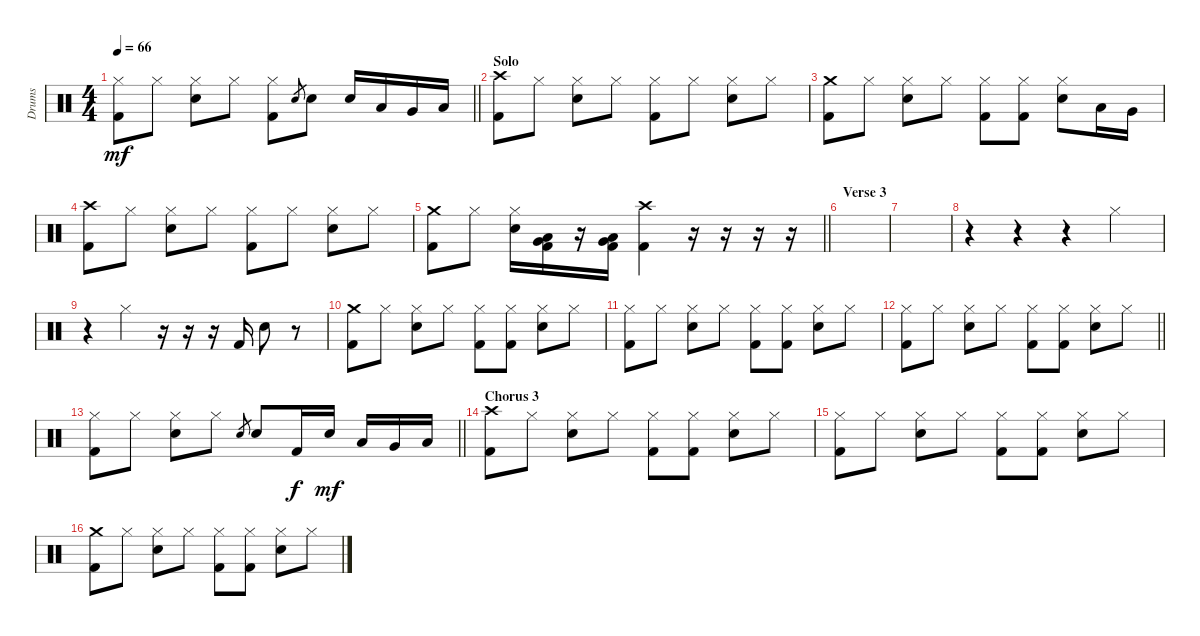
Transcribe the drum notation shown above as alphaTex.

\track ("Drums" "Drums") {instrument percussion}
\staff {score}
\articulation defaults
\ts (4 4)
\tempo 66
\clef neutral
\barLineRight lightlight
\ks c
("Hi-Hat (closed)" "Kick (hit) 2").8{dy mf} "Hi-Hat (closed)".8 ("Hi-Hat (closed)" "Snare (hit) 2").8 "Hi-Hat (closed)".8 ("Hi-Hat (closed)" "Kick (hit) 2").8 "Snare (hit) 2".8{gr} "Snare (hit) 2".8 "Snare (hit) 2".16 "Low Tom (hit)".16 "Very Low Tom (hit)".16 "Low Floor Tom (hit)".16 |
\section ("" "Solo")
("Crash high (hit)" "Kick (hit) 2").8 "Hi-Hat (closed)".8 ("Hi-Hat (closed)" "Snare (hit) 2").8 "Hi-Hat (closed)".8 ("Hi-Hat (closed)" "Kick (hit) 2").8 "Hi-Hat (closed)".8 ("Hi-Hat (closed)" "Snare (hit) 2").8 "Hi-Hat (closed)".8 |
("Crash medium (hit)" "Kick (hit) 2").8 "Hi-Hat (closed)".8 ("Hi-Hat (closed)" "Snare (hit) 2").8 "Hi-Hat (closed)".8 ("Hi-Hat (closed)" "Kick (hit) 2").8 ("Hi-Hat (closed)" "Kick (hit) 2").8 ("Hi-Hat (closed)" "Snare (hit) 2").8 "Low Tom (hit)".16 "Very Low Tom (hit)".16 |
("Crash high (hit)" "Kick (hit) 2").8 "Hi-Hat (closed)".8 ("Hi-Hat (closed)" "Snare (hit) 2").8 "Hi-Hat (closed)".8 ("Hi-Hat (closed)" "Kick (hit) 2").8 "Hi-Hat (closed)".8 ("Hi-Hat (closed)" "Snare (hit) 2").8 "Hi-Hat (closed)".8 |
\barLineRight lightlight
("Crash medium (hit)" "Kick (hit) 2").8 "Hi-Hat (closed)".8 ("Hi-Hat (closed)" "Snare (hit) 2").16 ("Very Low Tom (hit)" "Low Floor Tom (hit)" "Kick (hit) 2").16 r.16 ("Low Floor Tom (hit)" "Very Low Tom (hit)" "Kick (hit) 2").16 ("Crash high (hit)" "Kick (hit) 2").4 r.16 r.16 r.16 r.16 |
\section ("" "Verse 3")
|
|
r.4 r.4 r.4 "Hi-Hat (closed)".4 |
r.4 "Hi-Hat (closed)".4 r.16 r.16 r.16 "Kick (hit) 2".16 "Snare (hit) 2".8 r.8 |
("Crash medium (hit)" "Kick (hit) 2").8 "Hi-Hat (closed)".8 ("Hi-Hat (closed)" "Snare (hit) 2").8 "Hi-Hat (closed)".8 ("Hi-Hat (closed)" "Kick (hit) 2").8 ("Hi-Hat (closed)" "Kick (hit) 2").8 ("Hi-Hat (closed)" "Snare (hit) 2").8 "Hi-Hat (closed)".8 |
("Hi-Hat (closed)" "Kick (hit) 2").8 "Hi-Hat (closed)".8 ("Hi-Hat (closed)" "Snare (hit) 2").8 "Hi-Hat (closed)".8 ("Hi-Hat (closed)" "Kick (hit) 2").8 ("Hi-Hat (closed)" "Kick (hit) 2").8 ("Hi-Hat (closed)" "Snare (hit) 2").8 "Hi-Hat (closed)".8 |
\barLineRight lightlight
("Hi-Hat (closed)" "Kick (hit) 2").8 "Hi-Hat (closed)".8 ("Hi-Hat (closed)" "Snare (hit) 2").8 "Hi-Hat (closed)".8 ("Hi-Hat (closed)" "Kick (hit) 2").8 ("Hi-Hat (closed)" "Kick (hit) 2").8 ("Hi-Hat (closed)" "Snare (hit) 2").8 "Hi-Hat (closed)".8 |
\barLineRight lightlight
("Hi-Hat (closed)" "Kick (hit) 2").8 "Hi-Hat (closed)".8 ("Hi-Hat (closed)" "Snare (hit) 2").8 "Hi-Hat (closed)".8 "Snare (hit) 2".8{gr} "Snare (hit) 2".8 "Kick (hit) 2".16{dy f} "Snare (hit) 2".16{dy mf} "Low Tom (hit)".16 "Very Low Tom (hit)".16 "Low Floor Tom (hit)".16 |
\section ("" "Chorus 3")
("Crash high (hit)" "Kick (hit) 2").8 "Hi-Hat (closed)".8 ("Hi-Hat (closed)" "Snare (hit) 2").8 "Hi-Hat (closed)".8 ("Hi-Hat (closed)" "Kick (hit) 2").8 ("Hi-Hat (closed)" "Kick (hit) 2").8 ("Hi-Hat (closed)" "Snare (hit) 2").8 "Hi-Hat (closed)".8 |
("Hi-Hat (closed)" "Kick (hit) 2").8 "Hi-Hat (closed)".8 ("Hi-Hat (closed)" "Snare (hit) 2").8 "Hi-Hat (closed)".8 ("Hi-Hat (closed)" "Kick (hit) 2").8 ("Hi-Hat (closed)" "Kick (hit) 2").8 ("Hi-Hat (closed)" "Snare (hit) 2").8 "Hi-Hat (closed)".8 |
("Crash medium (hit)" "Kick (hit) 2").8 "Hi-Hat (closed)".8 ("Hi-Hat (closed)" "Snare (hit) 2").8 "Hi-Hat (closed)".8 ("Hi-Hat (closed)" "Kick (hit) 2").8 ("Hi-Hat (closed)" "Kick (hit) 2").8 ("Hi-Hat (closed)" "Snare (hit) 2").8 "Hi-Hat (closed)".8
